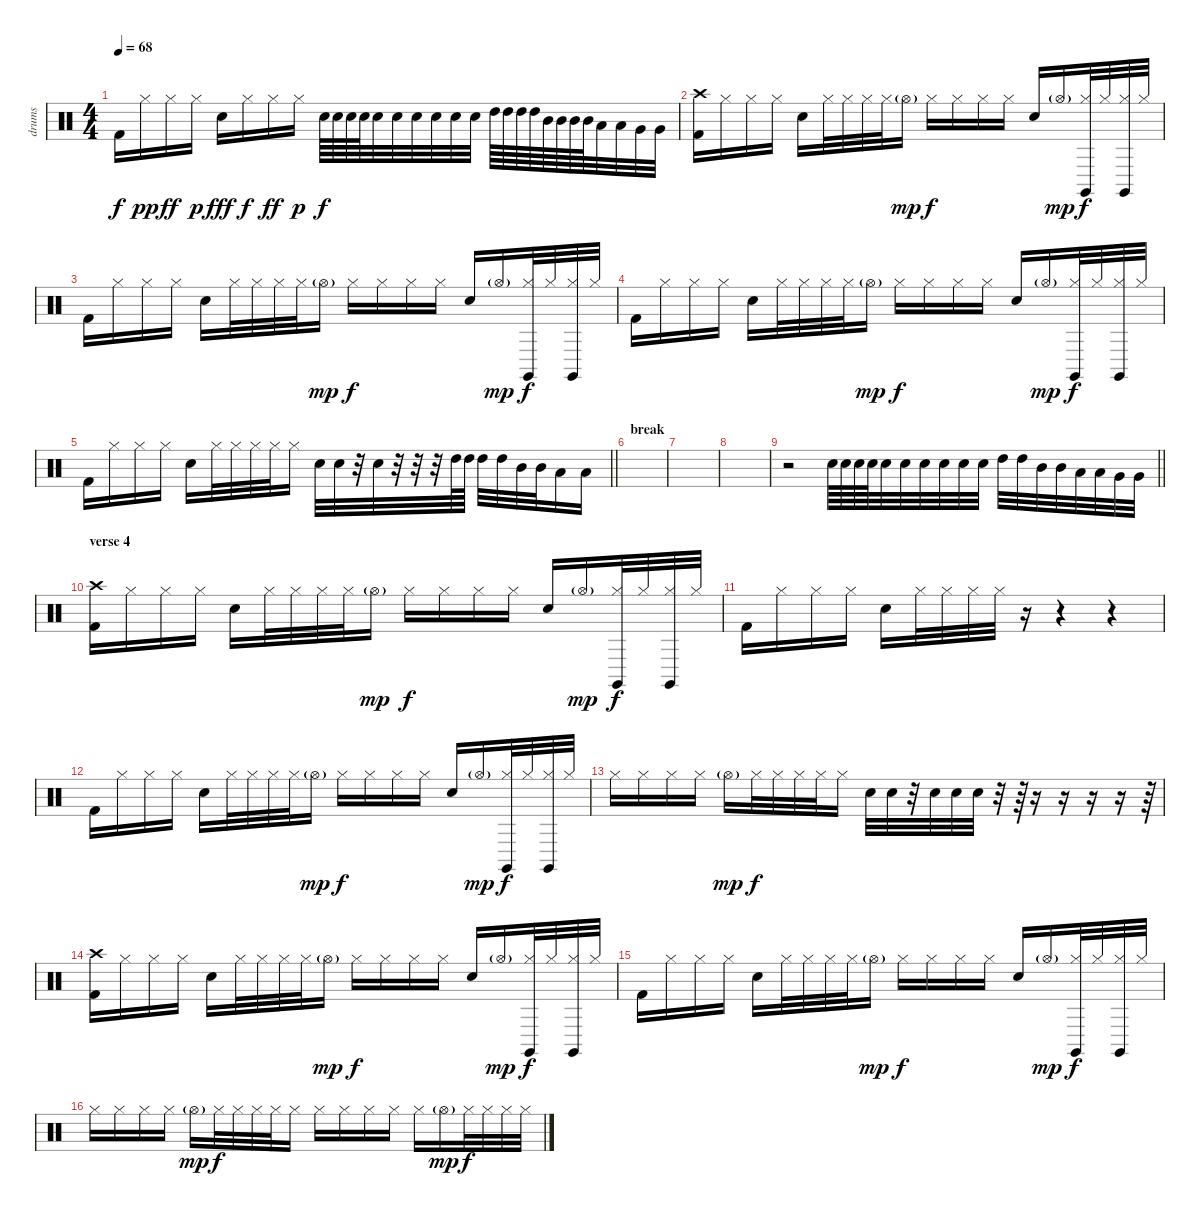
\track ("drums" "drums") {instrument percussion}
\staff {score}
\articulation defaults
\ts (4 4)
\tempo 68
\clef neutral
\ks c "Kick (hit) 2".16{dy f} "Hi-Hat (closed)".16{dy pp} "Hi-Hat (closed)".16{dy ff} "Hi-Hat (closed)".16{dy p} "Electric Snare (hit)".16{dy fff} "Hi-Hat (closed)".16{dy f} "Hi-Hat (closed)".16{dy ff} "Hi-Hat (closed)".16{dy p} "Electric Snare (hit)".64{dy f} "Electric Snare (hit)".64 "Electric Snare (hit)".64 "Electric Snare (hit)".64 "Electric Snare (hit)".32 "Electric Snare (hit)".32 "Electric Snare (hit)".32 "Electric Snare (hit)".32 "Electric Snare (hit)".32 "Electric Snare (hit)".32 "High Tom (hit)".64 "High Tom (hit)".64 "High Tom (hit)".64 "High Tom (hit)".64 "Mid Tom (hit)".64 "Mid Tom (hit)".64 "Mid Tom (hit)".64 "Mid Tom (hit)".64 "Low Tom (hit)".32 "Low Tom (hit)".32 "Very Low Tom (hit)".32 "Very Low Tom (hit)".32
|
("Kick (hit) 2" "Crash high (hit)").16 "Hi-Hat (closed)".16 "Hi-Hat (closed)".16 "Hi-Hat (closed)".16 "Electric Snare (hit)".16 "Hi-Hat (closed)".32 "Hi-Hat (closed)".32 "Hi-Hat (closed)".32 "Hi-Hat (closed)".32 "Hi-Hat (open)"{g}.16{dy mp} "Hi-Hat (closed)".16{dy f} "Hi-Hat (closed)".16 "Hi-Hat (closed)".16 "Hi-Hat (closed)".16 "Electric Snare (hit)".16 "Hi-Hat (open)"{g}.16{dy mp} ("Hi-Hat (closed)" "Claves (hit)").32{dy f} "Hi-Hat (closed)".32 ("Hi-Hat (closed)" "Claves (hit)").32 "Hi-Hat (closed)".32 |
"Kick (hit) 2".16 "Hi-Hat (closed)".16 "Hi-Hat (closed)".16 "Hi-Hat (closed)".16 "Electric Snare (hit)".16 "Hi-Hat (closed)".32 "Hi-Hat (closed)".32 "Hi-Hat (closed)".32 "Hi-Hat (closed)".32 "Hi-Hat (open)"{g}.16{dy mp} "Hi-Hat (closed)".16{dy f} "Hi-Hat (closed)".16 "Hi-Hat (closed)".16 "Hi-Hat (closed)".16 "Electric Snare (hit)".16 "Hi-Hat (open)"{g}.16{dy mp} ("Hi-Hat (closed)" "Claves (hit)").32{dy f} "Hi-Hat (closed)".32 ("Hi-Hat (closed)" "Claves (hit)").32 "Hi-Hat (closed)".32 |
"Kick (hit) 2".16 "Hi-Hat (closed)".16 "Hi-Hat (closed)".16 "Hi-Hat (closed)".16 "Electric Snare (hit)".16 "Hi-Hat (closed)".32 "Hi-Hat (closed)".32 "Hi-Hat (closed)".32 "Hi-Hat (closed)".32 "Hi-Hat (open)"{g}.16{dy mp} "Hi-Hat (closed)".16{dy f} "Hi-Hat (closed)".16 "Hi-Hat (closed)".16 "Hi-Hat (closed)".16 "Electric Snare (hit)".16 "Hi-Hat (open)"{g}.16{dy mp} ("Hi-Hat (closed)" "Claves (hit)").32{dy f} "Hi-Hat (closed)".32 ("Hi-Hat (closed)" "Claves (hit)").32 "Hi-Hat (closed)".32 |
\barLineRight lightlight "Kick (hit) 2".16 "Hi-Hat (closed)".16 "Hi-Hat (closed)".16 "Hi-Hat (closed)".16 "Electric Snare (hit)".16 "Hi-Hat (closed)".32 "Hi-Hat (closed)".32 "Hi-Hat (closed)".32 "Hi-Hat (closed)".32 "Hi-Hat (closed)".16 "Electric Snare (hit)".32 "Electric Snare (hit)".32
r.32 "Electric Snare (hit)".32 r.32 r.32 r.32 "High Tom (hit)".64 "High Tom (hit)".64 "High Tom (hit)".32 "High Tom (hit)".32 "Mid Tom (hit)".32 "Mid Tom (hit)".32 "Low Tom (hit)".16 "Low Tom (hit)".16 |
\section ("" "break")
|
|
|
\barLineRight lightlight
r.2 "Electric Snare (hit)".64 "Electric Snare (hit)".64 "Electric Snare (hit)".64 "Electric Snare (hit)".64 "Electric Snare (hit)".32 "Electric Snare (hit)".32 "Electric Snare (hit)".32 "Electric Snare (hit)".32 "Electric Snare (hit)".32 "Electric Snare (hit)".32 "High Tom (hit)".32 "High Tom (hit)".32 "Mid Tom (hit)".32 "Mid Tom (hit)".32 "Low Tom (hit)".32 "Low Tom (hit)".32 "Very Low Tom (hit)".32 "Very Low Tom (hit)".32 |
\section ("" "verse 4")
("Kick (hit) 2" "Crash high (hit)").16 "Hi-Hat (closed)".16 "Hi-Hat (closed)".16 "Hi-Hat (closed)".16 "Electric Snare (hit)".16 "Hi-Hat (closed)".32 "Hi-Hat (closed)".32 "Hi-Hat (closed)".32 "Hi-Hat (closed)".32 "Hi-Hat (open)"{g}.16{dy mp} "Hi-Hat (closed)".16{dy f} "Hi-Hat (closed)".16 "Hi-Hat (closed)".16 "Hi-Hat (closed)".16 "Electric Snare (hit)".16 "Hi-Hat (open)"{g}.16{dy mp} ("Hi-Hat (closed)" "Claves (hit)").32{dy f} "Hi-Hat (closed)".32 ("Hi-Hat (closed)" "Claves (hit)").32 "Hi-Hat (closed)".32 |
"Kick (hit) 2".16 "Hi-Hat (closed)".16 "Hi-Hat (closed)".16 "Hi-Hat (closed)".16 "Electric Snare (hit)".16 "Hi-Hat (closed)".32 "Hi-Hat (closed)".32 "Hi-Hat (closed)".32 "Hi-Hat (closed)".32 r.16 r.4 r.4 |
"Kick (hit) 2".16 "Hi-Hat (closed)".16 "Hi-Hat (closed)".16 "Hi-Hat (closed)".16 "Electric Snare (hit)".16 "Hi-Hat (closed)".32 "Hi-Hat (closed)".32 "Hi-Hat (closed)".32 "Hi-Hat (closed)".32 "Hi-Hat (open)"{g}.16{dy mp} "Hi-Hat (closed)".16{dy f} "Hi-Hat (closed)".16 "Hi-Hat (closed)".16 "Hi-Hat (closed)".16 "Electric Snare (hit)".16 "Hi-Hat (open)"{g}.16{dy mp} ("Hi-Hat (closed)" "Claves (hit)").32{dy f} "Hi-Hat (closed)".32 ("Hi-Hat (closed)" "Claves (hit)").32 "Hi-Hat (closed)".32 |
"Hi-Hat (closed)".16 "Hi-Hat (closed)".16 "Hi-Hat (closed)".16 "Hi-Hat (closed)".16 "Hi-Hat (open)"{g}.16{dy mp} "Hi-Hat (closed)".32{dy f} "Hi-Hat (closed)".32 "Hi-Hat (closed)".32 "Hi-Hat (closed)".32 "Hi-Hat (closed)".16 "Electric Snare (hit)".32 "Electric Snare (hit)".32 r.32 "Electric Snare (hit)".32 "Electric Snare (hit)".32 "Electric Snare (hit)".32 r.32 r.64 r.16 r.16 r.16 r.16 r.64 |
("Kick (hit) 2" "Crash high (hit)").16 "Hi-Hat (closed)".16 "Hi-Hat (closed)".16 "Hi-Hat (closed)".16 "Electric Snare (hit)".16 "Hi-Hat (closed)".32 "Hi-Hat (closed)".32 "Hi-Hat (closed)".32 "Hi-Hat (closed)".32 "Hi-Hat (open)"{g}.16{dy mp} "Hi-Hat (closed)".16{dy f} "Hi-Hat (closed)".16 "Hi-Hat (closed)".16 "Hi-Hat (closed)".16 "Electric Snare (hit)".16 "Hi-Hat (open)"{g}.16{dy mp} ("Hi-Hat (closed)" "Claves (hit)").32{dy f} "Hi-Hat (closed)".32 ("Hi-Hat (closed)" "Claves (hit)").32 "Hi-Hat (closed)".32 |
"Kick (hit) 2".16 "Hi-Hat (closed)".16 "Hi-Hat (closed)".16 "Hi-Hat (closed)".16 "Electric Snare (hit)".16 "Hi-Hat (closed)".32 "Hi-Hat (closed)".32 "Hi-Hat (closed)".32 "Hi-Hat (closed)".32 "Hi-Hat (open)"{g}.16{dy mp} "Hi-Hat (closed)".16{dy f} "Hi-Hat (closed)".16 "Hi-Hat (closed)".16 "Hi-Hat (closed)".16 "Electric Snare (hit)".16 "Hi-Hat (open)"{g}.16{dy mp} ("Hi-Hat (closed)" "Claves (hit)").32{dy f} "Hi-Hat (closed)".32 ("Hi-Hat (closed)" "Claves (hit)").32 "Hi-Hat (closed)".32 |
"Hi-Hat (closed)".16 "Hi-Hat (closed)".16 "Hi-Hat (closed)".16 "Hi-Hat (closed)".16 "Hi-Hat (open)"{g}.16{dy mp} "Hi-Hat (closed)".32{dy f} "Hi-Hat (closed)".32 "Hi-Hat (closed)".32 "Hi-Hat (closed)".32 "Hi-Hat (closed)".16 "Hi-Hat (closed)".16 "Hi-Hat (closed)".16 "Hi-Hat (closed)".16 "Hi-Hat (closed)".16 "Hi-Hat (closed)".16 "Hi-Hat (open)"{g}.16{dy mp} "Hi-Hat (closed)".32{dy f} "Hi-Hat (closed)".32 "Hi-Hat (closed)".32 "Hi-Hat (closed)".32
